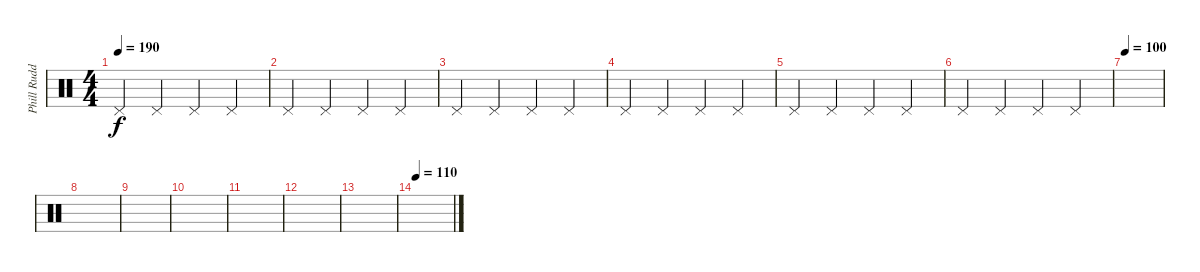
\track ("Phill Rudd (Drums)" "Phill Rudd") {instrument percussion}
\staff {score}
\articulation defaults
\ts (4 4)
\tempo 190
\clef neutral
\ks c "Pedal Hi-Hat (hit)".4{dy f} "Pedal Hi-Hat (hit)".4 "Pedal Hi-Hat (hit)".4 "Pedal Hi-Hat (hit)".4
|
"Pedal Hi-Hat (hit)".4 "Pedal Hi-Hat (hit)".4 "Pedal Hi-Hat (hit)".4 "Pedal Hi-Hat (hit)".4 |
"Pedal Hi-Hat (hit)".4 "Pedal Hi-Hat (hit)".4 "Pedal Hi-Hat (hit)".4 "Pedal Hi-Hat (hit)".4 |
"Pedal Hi-Hat (hit)".4 "Pedal Hi-Hat (hit)".4 "Pedal Hi-Hat (hit)".4 "Pedal Hi-Hat (hit)".4 |
"Pedal Hi-Hat (hit)".4 "Pedal Hi-Hat (hit)".4 "Pedal Hi-Hat (hit)".4 "Pedal Hi-Hat (hit)".4 |
"Pedal Hi-Hat (hit)".4 "Pedal Hi-Hat (hit)".4 "Pedal Hi-Hat (hit)".4 "Pedal Hi-Hat (hit)".4 |
\tempo 100
|
|
|
|
|
|
|
\tempo 110
